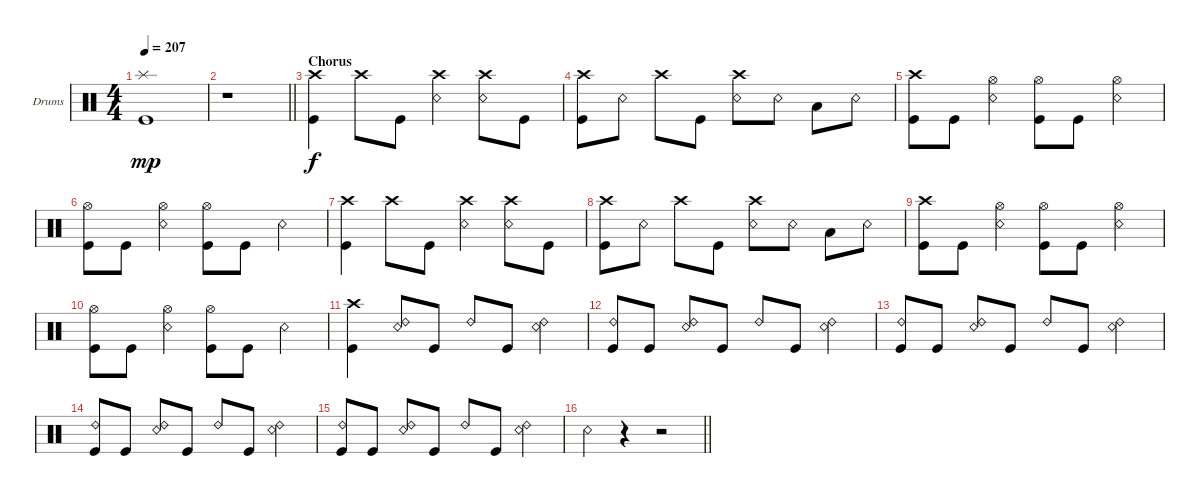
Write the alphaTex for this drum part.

\defaultSystemsLayout 4
\bracketExtendMode groupsimilarinstruments
\firstSystemTrackNameOrientation horizontal
\otherSystemsTrackNameOrientation horizontal
\track ("Drums" "Drums") {instrument percussion}
\staff {score}
\articulation defaults
\ts (4 4)
\tempo 207
\clef neutral
\ks c
("Kick (hit)" "Splash (hit)").1{dy mp} |
\barLineRight lightlight
r.1 |
\section ("" "Chorus")
("Kick (hit)" "Crash high (hit)").4{dy f} "Crash high (hit)".8 "Kick (hit)".8 ("Snare (rim shot)" "Crash high (hit)").4 ("Snare (rim shot)" "Crash high (hit)").8 "Kick (hit)".8 |
("Kick (hit)" "Crash high (hit)").8 "Snare (rim shot)".8 "Crash high (hit)".8 "Kick (hit)".8 ("Snare (rim shot)" "Crash high (hit)").8 "Snare (rim shot)".8 "Low Tom (hit)".8 "Snare (rim shot)".8 |
("Kick (hit)" "Crash high (hit)").8 "Kick (hit)".8 ("Snare (rim shot)" "Hi-Hat (open)").4 ("Kick (hit)" "Hi-Hat (open)").8 "Kick (hit)".8 ("Snare (rim shot)" "Hi-Hat (open)").4 |
("Kick (hit)" "Hi-Hat (open)").8 "Kick (hit)".8 ("Snare (rim shot)" "Hi-Hat (open)").4 ("Kick (hit)" "Hi-Hat (open)").8 "Kick (hit)".8 "Snare (rim shot)".4 |
("Kick (hit)" "Crash high (hit)").4 "Crash high (hit)".8 "Kick (hit)".8 ("Snare (rim shot)" "Crash high (hit)").4 ("Snare (rim shot)" "Crash high (hit)").8 "Kick (hit)".8 |
("Kick (hit)" "Crash high (hit)").8 "Snare (rim shot)".8 "Crash high (hit)".8 "Kick (hit)".8 ("Snare (rim shot)" "Crash high (hit)").8 "Snare (rim shot)".8 "Low Tom (hit)".8 "Snare (rim shot)".8 |
("Kick (hit)" "Crash high (hit)").8 "Kick (hit)".8 ("Snare (rim shot)" "Hi-Hat (open)").4 ("Kick (hit)" "Hi-Hat (open)").8 "Kick (hit)".8 ("Snare (rim shot)" "Hi-Hat (open)").4 |
("Kick (hit)" "Hi-Hat (open)").8 "Kick (hit)".8 ("Snare (rim shot)" "Hi-Hat (open)").4 ("Kick (hit)" "Hi-Hat (open)").8 "Kick (hit)".8 "Snare (rim shot)".4 |
("Kick (hit)" "Crash high (hit)").4 ("Snare (rim shot)" "Ride (bell) 2").8 "Kick (hit)".8 "Ride (bell) 2".8 "Kick (hit)".8 ("Snare (rim shot)" "Ride (bell) 2").4 |
("Kick (hit)" "Ride (bell) 2").8 "Kick (hit)".8 ("Snare (rim shot)" "Ride (bell) 2").8 "Kick (hit)".8 "Ride (bell) 2".8 "Kick (hit)".8 ("Snare (rim shot)" "Ride (bell) 2").4 |
("Kick (hit)" "Ride (bell) 2").8 "Kick (hit)".8 ("Snare (rim shot)" "Ride (bell) 2").8 "Kick (hit)".8 "Ride (bell) 2".8 "Kick (hit)".8 ("Snare (rim shot)" "Ride (bell) 2").4 |
("Kick (hit)" "Ride (bell) 2").8 "Kick (hit)".8 ("Snare (rim shot)" "Ride (bell) 2").8 "Kick (hit)".8 "Ride (bell) 2".8 "Kick (hit)".8 ("Snare (rim shot)" "Ride (bell) 2").4 |
("Kick (hit)" "Ride (bell) 2").8 "Kick (hit)".8 ("Snare (rim shot)" "Ride (bell) 2").8 "Kick (hit)".8 "Ride (bell) 2".8 "Kick (hit)".8 ("Snare (rim shot)" "Ride (bell) 2").4 |
\barLineRight lightlight "Snare (rim shot)".4
r.4 r.2
